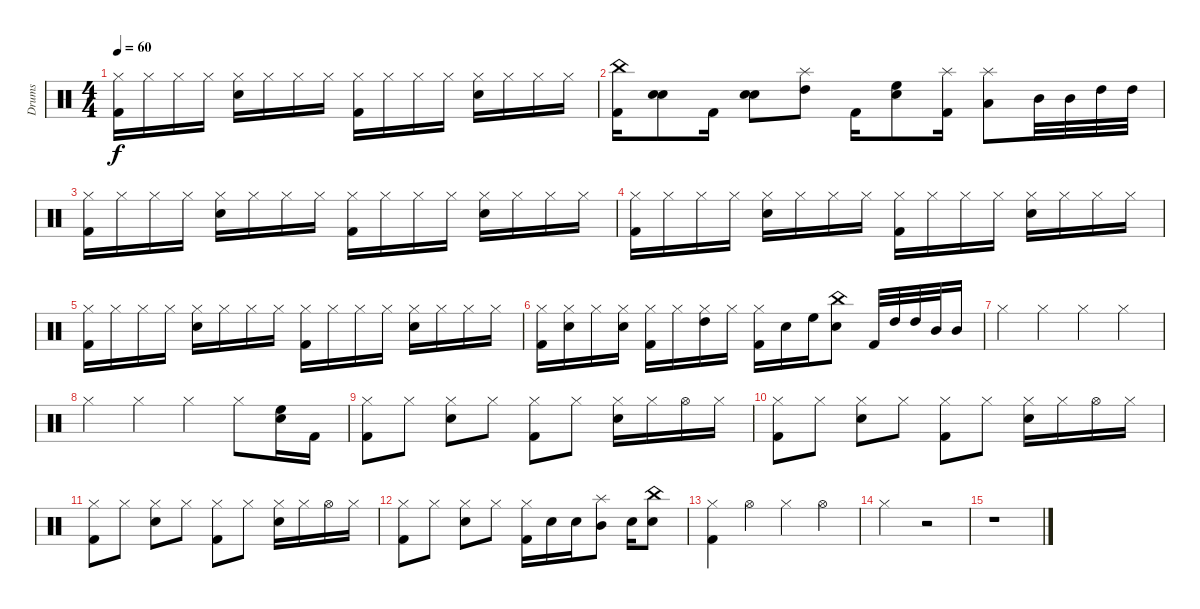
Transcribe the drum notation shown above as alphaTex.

\track ("Drums" "Drums") {instrument percussion}
\staff {score}
\articulation defaults
\ts (4 4)
\tempo 60
\clef neutral
\ks c
("Kick (hit) 2" "Hi-Hat (closed)").16{dy f} "Hi-Hat (closed)".16 "Hi-Hat (closed)".16 "Hi-Hat (closed)".16 ("Snare (hit) 2" "Hi-Hat (closed)").16 "Hi-Hat (closed)".16 "Hi-Hat (closed)".16 "Hi-Hat (closed)".16 ("Kick (hit) 2" "Hi-Hat (closed)").16 "Hi-Hat (closed)".16 "Hi-Hat (closed)".16 "Hi-Hat (closed)".16 ("Snare (hit) 2" "Hi-Hat (closed)").16 "Hi-Hat (closed)".16 "Hi-Hat (closed)".16 "Hi-Hat (closed)".16 |
("Kick (hit) 2" "China (hit)").16 ("Snare (hit) 2" "Snare (hit) 2").8 "Kick (hit) 2".16 ("Snare (hit) 2" "Snare (hit) 2").8 ("Splash (hit)" "High Tom (hit)").8 "Kick (hit) 2".16 ("Snare (hit) 2" "High Floor Tom (hit)").8 ("Kick (hit) 2" "Splash (hit)").16 ("Low Tom (hit)" "Splash (hit)").8 "Mid Tom (hit)".32 "Mid Tom (hit)".32 "High Tom (hit)".32 "High Tom (hit)".32 |
("Kick (hit) 2" "Hi-Hat (closed)").16 "Hi-Hat (closed)".16 "Hi-Hat (closed)".16 "Hi-Hat (closed)".16 ("Snare (hit) 2" "Hi-Hat (closed)").16 "Hi-Hat (closed)".16 "Hi-Hat (closed)".16 "Hi-Hat (closed)".16 ("Kick (hit) 2" "Hi-Hat (closed)").16 "Hi-Hat (closed)".16 "Hi-Hat (closed)".16 "Hi-Hat (closed)".16 ("Snare (hit) 2" "Hi-Hat (closed)").16 "Hi-Hat (closed)".16 "Hi-Hat (closed)".16 "Hi-Hat (closed)".16 |
("Kick (hit) 2" "Hi-Hat (closed)").16 "Hi-Hat (closed)".16 "Hi-Hat (closed)".16 "Hi-Hat (closed)".16 ("Snare (hit) 2" "Hi-Hat (closed)").16 "Hi-Hat (closed)".16 "Hi-Hat (closed)".16 "Hi-Hat (closed)".16 ("Kick (hit) 2" "Hi-Hat (closed)").16 "Hi-Hat (closed)".16 "Hi-Hat (closed)".16 "Hi-Hat (closed)".16 ("Snare (hit) 2" "Hi-Hat (closed)").16 "Hi-Hat (closed)".16 "Hi-Hat (closed)".16 "Hi-Hat (closed)".16 |
("Kick (hit) 2" "Hi-Hat (closed)").16 "Hi-Hat (closed)".16 "Hi-Hat (closed)".16 "Hi-Hat (closed)".16 ("Snare (hit) 2" "Hi-Hat (closed)").16 "Hi-Hat (closed)".16 "Hi-Hat (closed)".16 "Hi-Hat (closed)".16 ("Kick (hit) 2" "Hi-Hat (closed)").16 "Hi-Hat (closed)".16 "Hi-Hat (closed)".16 "Hi-Hat (closed)".16 ("Snare (hit) 2" "Hi-Hat (closed)").16 "Hi-Hat (closed)".16 "Hi-Hat (closed)".16 "Hi-Hat (closed)".16 |
("Kick (hit) 2" "Hi-Hat (closed)").16 ("Snare (hit) 2" "Hi-Hat (closed)").16 "Hi-Hat (closed)".16 ("Snare (hit) 2" "Hi-Hat (closed)").16 ("Kick (hit) 2" "Hi-Hat (closed)").16 "Hi-Hat (closed)".16 ("High Tom (hit)" "Hi-Hat (closed)").16 "Hi-Hat (closed)".16 ("Kick (hit) 2" "Hi-Hat (closed)").16 "Snare (hit) 2".16 "High Floor Tom (hit)".16 ("Snare (hit) 2" "China (hit)").8 "Kick (hit) 2".32 "High Tom (hit)".32 "High Tom (hit)".32 "Mid Tom (hit)".32 "Mid Tom (hit)".16 |
"Hi-Hat (closed)".4 "Hi-Hat (closed)".4 "Hi-Hat (closed)".4 "Hi-Hat (closed)".4 |
"Hi-Hat (closed)".4 "Hi-Hat (closed)".4 "Hi-Hat (closed)".4 "Hi-Hat (closed)".8 ("Snare (hit) 2" "High Floor Tom (hit)").16 "Kick (hit) 2".16 |
("Kick (hit) 2" "Hi-Hat (closed)").8 "Hi-Hat (closed)".8 ("Snare (hit) 2" "Hi-Hat (closed)").8 "Hi-Hat (closed)".8 ("Kick (hit) 2" "Hi-Hat (closed)").8 "Hi-Hat (closed)".8 ("Snare (hit) 2" "Hi-Hat (closed)").16 "Hi-Hat (closed)".16 "Hi-Hat (open)".16 "Hi-Hat (closed)".16 |
("Kick (hit) 2" "Hi-Hat (closed)").8 "Hi-Hat (closed)".8 ("Snare (hit) 2" "Hi-Hat (closed)").8 "Hi-Hat (closed)".8 ("Kick (hit) 2" "Hi-Hat (closed)").8 "Hi-Hat (closed)".8 ("Snare (hit) 2" "Hi-Hat (closed)").16 "Hi-Hat (closed)".16 "Hi-Hat (open)".16 "Hi-Hat (closed)".16 |
("Kick (hit) 2" "Hi-Hat (closed)").8 "Hi-Hat (closed)".8 ("Snare (hit) 2" "Hi-Hat (closed)").8 "Hi-Hat (closed)".8 ("Kick (hit) 2" "Hi-Hat (closed)").8 "Hi-Hat (closed)".8 ("Snare (hit) 2" "Hi-Hat (closed)").16 "Hi-Hat (closed)".16 "Hi-Hat (open)".16 "Hi-Hat (closed)".16 |
("Kick (hit) 2" "Hi-Hat (closed)").8 "Hi-Hat (closed)".8 ("Snare (hit) 2" "Hi-Hat (closed)").8 "Hi-Hat (closed)".8 ("Kick (hit) 2" "Hi-Hat (closed)").16 "Snare (hit) 2".16 "Snare (hit) 2".16 ("Splash (hit)" "Mid Tom (hit)").8 "Snare (hit) 2".16 ("Snare (hit) 2" "China (hit)").8 |
("Kick (hit) 2" "Hi-Hat (closed)").4 "Hi-Hat (open)".4 "Hi-Hat (closed)".4 "Hi-Hat (open)".4 |
"Hi-Hat (closed)".2 r.2 |
r.1
